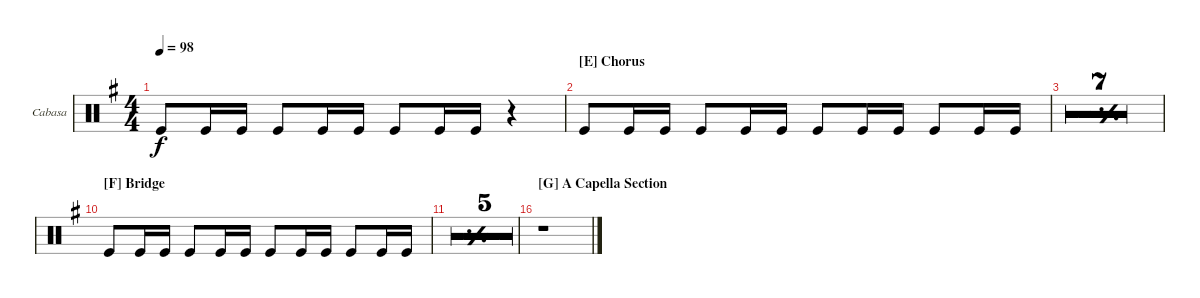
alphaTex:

\defaultSystemsLayout 4
\bracketExtendMode groupsimilarinstruments
\firstSystemTrackNameOrientation horizontal
\otherSystemsTrackNameOrientation horizontal
\track ("Cabasa" "Cabasa") {multiBarRest instrument percussion}
\staff {score}
\articulation defaults
\ts (4 4)
\tempo 98
\clef neutral
\ks g "Kick (hit)".8{dy f} "Kick (hit)".16 "Kick (hit)".16 "Kick (hit)".8 "Kick (hit)".16 "Kick (hit)".16 "Kick (hit)".8 "Kick (hit)".16 "Kick (hit)".16
r.4 |
\section ("E" "Chorus")
"Kick (hit)".8 "Kick (hit)".16 "Kick (hit)".16 "Kick (hit)".8 "Kick (hit)".16 "Kick (hit)".16 "Kick (hit)".8 "Kick (hit)".16 "Kick (hit)".16 "Kick (hit)".8 "Kick (hit)".16 "Kick (hit)".16 |
\simile simple
|
|
|
|
|
|
|
\section ("F" "Bridge")
\simile none "Kick (hit)".8 "Kick (hit)".16 "Kick (hit)".16 "Kick (hit)".8 "Kick (hit)".16 "Kick (hit)".16 "Kick (hit)".8 "Kick (hit)".16 "Kick (hit)".16 "Kick (hit)".8 "Kick (hit)".16 "Kick (hit)".16
|
\simile simple
|
|
|
|
|
\section ("G" "A Capella Section")
\simile none
r.1
